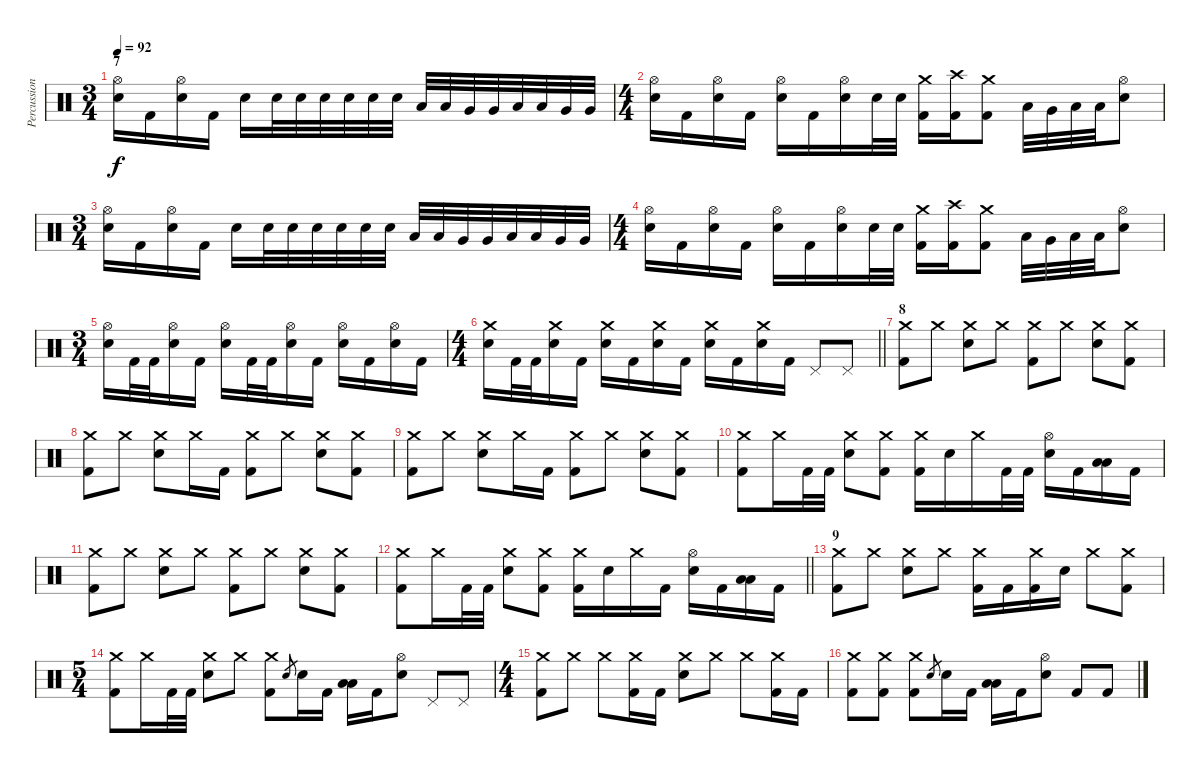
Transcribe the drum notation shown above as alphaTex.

\track ("Percussion" "Percussion") {instrument percussion}
\staff {score}
\articulation defaults
\ts (3 4)
\section ("" "7")
\tempo 92
\clef neutral
\ks c
("Hi-Hat (open)" "Electric Snare (hit)").16{dy f} "Kick (hit) 2".16 ("Hi-Hat (open)" "Electric Snare (hit)").16 "Kick (hit) 2".16 "Electric Snare (hit)".16 "Electric Snare (hit)".32 "Electric Snare (hit)".32 "Electric Snare (hit)".32 "Electric Snare (hit)".32 "Electric Snare (hit)".32 "Electric Snare (hit)".32 "Low Tom (hit)".32 "Low Tom (hit)".32 "Very Low Tom (hit)".32 "Very Low Tom (hit)".32 "Low Tom (hit)".32 "Low Tom (hit)".32 "Very Low Tom (hit)".32 "Very Low Tom (hit)".32 |
\ts (4 4)
("Hi-Hat (open)" "Electric Snare (hit)").16 "Kick (hit) 2".16 ("Hi-Hat (open)" "Electric Snare (hit)").16 "Kick (hit) 2".16 ("Hi-Hat (open)" "Electric Snare (hit)").16 "Kick (hit) 2".16 ("Hi-Hat (open)" "Electric Snare (hit)").16 "Electric Snare (hit)".32 "Electric Snare (hit)".32 ("Crash medium (hit)" "Kick (hit) 2").16 ("Crash high (hit)" "Kick (hit) 2").16 ("Crash medium (hit)" "Kick (hit) 2").8 "Low Tom (hit)".32 "Very Low Tom (hit)".32 "Low Floor Tom (hit)".32 "Low Floor Tom (hit)".32 ("Hi-Hat (open)" "Electric Snare (hit)").8 |
\ts (3 4)
("Hi-Hat (open)" "Electric Snare (hit)").16 "Kick (hit) 2".16 ("Hi-Hat (open)" "Electric Snare (hit)").16 "Kick (hit) 2".16 "Electric Snare (hit)".16 "Electric Snare (hit)".32 "Electric Snare (hit)".32 "Electric Snare (hit)".32 "Electric Snare (hit)".32 "Electric Snare (hit)".32 "Electric Snare (hit)".32 "Low Tom (hit)".32 "Low Tom (hit)".32 "Very Low Tom (hit)".32 "Very Low Tom (hit)".32 "Low Tom (hit)".32 "Low Tom (hit)".32 "Very Low Tom (hit)".32 "Very Low Tom (hit)".32 |
\ts (4 4)
("Hi-Hat (open)" "Electric Snare (hit)").16 "Kick (hit) 2".16 ("Hi-Hat (open)" "Electric Snare (hit)").16 "Kick (hit) 2".16 ("Hi-Hat (open)" "Electric Snare (hit)").16 "Kick (hit) 2".16 ("Hi-Hat (open)" "Electric Snare (hit)").16 "Electric Snare (hit)".32 "Electric Snare (hit)".32 ("Crash medium (hit)" "Kick (hit) 2").16 ("Crash high (hit)" "Kick (hit) 2").16 ("Crash medium (hit)" "Kick (hit) 2").8 "Low Tom (hit)".32 "Very Low Tom (hit)".32 "Low Floor Tom (hit)".32 "Low Floor Tom (hit)".32 ("Hi-Hat (open)" "Electric Snare (hit)").8 |
\ts (3 4)
("Hi-Hat (open)" "Electric Snare (hit)").16 "Kick (hit) 2".32 "Kick (hit) 2".32 ("Hi-Hat (open)" "Electric Snare (hit)").16 "Kick (hit) 2".16 ("Hi-Hat (open)" "Electric Snare (hit)").16 "Kick (hit) 2".32 "Kick (hit) 2".32 ("Hi-Hat (open)" "Electric Snare (hit)").16 "Kick (hit) 2".16 ("Hi-Hat (open)" "Electric Snare (hit)").16 "Kick (hit) 2".16 ("Hi-Hat (open)" "Electric Snare (hit)").16 "Kick (hit) 2".16 |
\ts (4 4)
\barLineRight lightlight
("Crash medium (hit)" "Electric Snare (hit)").16 "Kick (hit) 2".32 "Kick (hit) 2".32 ("Crash medium (hit)" "Electric Snare (hit)").16 "Kick (hit) 2".16 ("Crash medium (hit)" "Electric Snare (hit)").16 "Kick (hit) 2".16 ("Crash medium (hit)" "Electric Snare (hit)").16 "Kick (hit) 2".16 ("Crash medium (hit)" "Electric Snare (hit)").16 "Kick (hit) 2".16 ("Crash medium (hit)" "Electric Snare (hit)").16 "Kick (hit) 2".16 "Pedal Hi-Hat (hit)".8 "Pedal Hi-Hat (hit)".8 |
\section ("" "8")
("Crash medium (hit)" "Kick (hit) 2").8 "Crash medium (hit)".8 ("Crash medium (hit)" "Electric Snare (hit)").8 "Crash medium (hit)".8 ("Crash medium (hit)" "Kick (hit) 2").8 "Crash medium (hit)".8 ("Crash medium (hit)" "Electric Snare (hit)").8 ("Crash medium (hit)" "Kick (hit) 2").8 |
("Crash medium (hit)" "Kick (hit) 2").8 "Crash medium (hit)".8 ("Crash medium (hit)" "Electric Snare (hit)").8 "Crash medium (hit)".16 "Kick (hit) 2".16 ("Crash medium (hit)" "Kick (hit) 2").8 "Crash medium (hit)".8 ("Crash medium (hit)" "Electric Snare (hit)").8 ("Crash medium (hit)" "Kick (hit) 2").8 |
("Crash medium (hit)" "Kick (hit) 2").8 "Crash medium (hit)".8 ("Crash medium (hit)" "Electric Snare (hit)").8 "Crash medium (hit)".16 "Kick (hit) 2".16 ("Crash medium (hit)" "Kick (hit) 2").8 "Crash medium (hit)".8 ("Crash medium (hit)" "Electric Snare (hit)").8 ("Crash medium (hit)" "Kick (hit) 2").8 |
("Crash medium (hit)" "Kick (hit) 2").8 "Crash medium (hit)".16 "Kick (hit) 2".32 "Kick (hit) 2".32 ("Crash medium (hit)" "Electric Snare (hit)").8 ("Crash medium (hit)" "Kick (hit) 2").8 ("Crash medium (hit)" "Kick (hit) 2").16 "Electric Snare (hit)".16 "Crash medium (hit)".16 "Kick (hit) 2".32 "Kick (hit) 2".32 ("Hi-Hat (open)" "Electric Snare (hit)").16 "Kick (hit) 2".16 ("Low Tom (hit)" "Low Floor Tom (hit)").16 "Kick (hit) 2".16 |
("Crash medium (hit)" "Kick (hit) 2").8 "Crash medium (hit)".8 ("Crash medium (hit)" "Electric Snare (hit)").8 "Crash medium (hit)".8 ("Crash medium (hit)" "Kick (hit) 2").8 "Crash medium (hit)".8 ("Crash medium (hit)" "Electric Snare (hit)").8 ("Crash medium (hit)" "Kick (hit) 2").8 |
\barLineRight lightlight
("Crash medium (hit)" "Kick (hit) 2").8 "Crash medium (hit)".16 "Kick (hit) 2".32 "Kick (hit) 2".32 ("Crash medium (hit)" "Electric Snare (hit)").8 ("Crash medium (hit)" "Kick (hit) 2").8 ("Crash medium (hit)" "Kick (hit) 2").16 "Electric Snare (hit)".16 "Crash medium (hit)".16 "Kick (hit) 2".16 ("Hi-Hat (open)" "Electric Snare (hit)").16 "Kick (hit) 2".16 ("Low Tom (hit)" "Low Floor Tom (hit)").16 "Kick (hit) 2".16 |
\section ("" "9")
("Crash medium (hit)" "Kick (hit) 2").8 "Crash medium (hit)".8 ("Crash medium (hit)" "Electric Snare (hit)").8 "Crash medium (hit)".8 ("Crash medium (hit)" "Kick (hit) 2").16 "Kick (hit) 2".16 ("Crash medium (hit)" "Kick (hit) 2").16 "Electric Snare (hit)".16 "Crash medium (hit)".8 ("Crash medium (hit)" "Kick (hit) 2").8 |
\ts (5 4)
("Crash medium (hit)" "Kick (hit) 2").8 "Crash medium (hit)".16 "Kick (hit) 2".32 "Kick (hit) 2".32 ("Crash medium (hit)" "Electric Snare (hit)").8 "Crash medium (hit)".8 ("Crash medium (hit)" "Kick (hit) 2").8 "Electric Snare (hit)".8{gr} "Electric Snare (hit)".16 "Kick (hit) 2".16 ("Low Tom (hit)" "Low Floor Tom (hit)").16 "Kick (hit) 2".16 ("Hi-Hat (open)" "Electric Snare (hit)").8 "Pedal Hi-Hat (hit)".8 "Pedal Hi-Hat (hit)".8 |
\ts (4 4)
("Crash medium (hit)" "Kick (hit) 2").8 "Crash medium (hit)".8 "Crash medium (hit)".8 ("Crash medium (hit)" "Kick (hit) 2").16 "Kick (hit) 2".16 ("Crash medium (hit)" "Electric Snare (hit)").8 "Crash medium (hit)".8 "Crash medium (hit)".8 ("Crash medium (hit)" "Kick (hit) 2").16 "Kick (hit) 2".16 |
("Crash medium (hit)" "Kick (hit) 2").8 ("Crash medium (hit)" "Kick (hit) 2").8 ("Crash medium (hit)" "Kick (hit) 2").8 "Electric Snare (hit)".8{gr} "Electric Snare (hit)".16 "Kick (hit) 2".16 ("Low Tom (hit)" "Low Floor Tom (hit)").16 "Kick (hit) 2".16 ("Hi-Hat (open)" "Electric Snare (hit)").8 "Kick (hit) 2".8 "Kick (hit) 2".8
